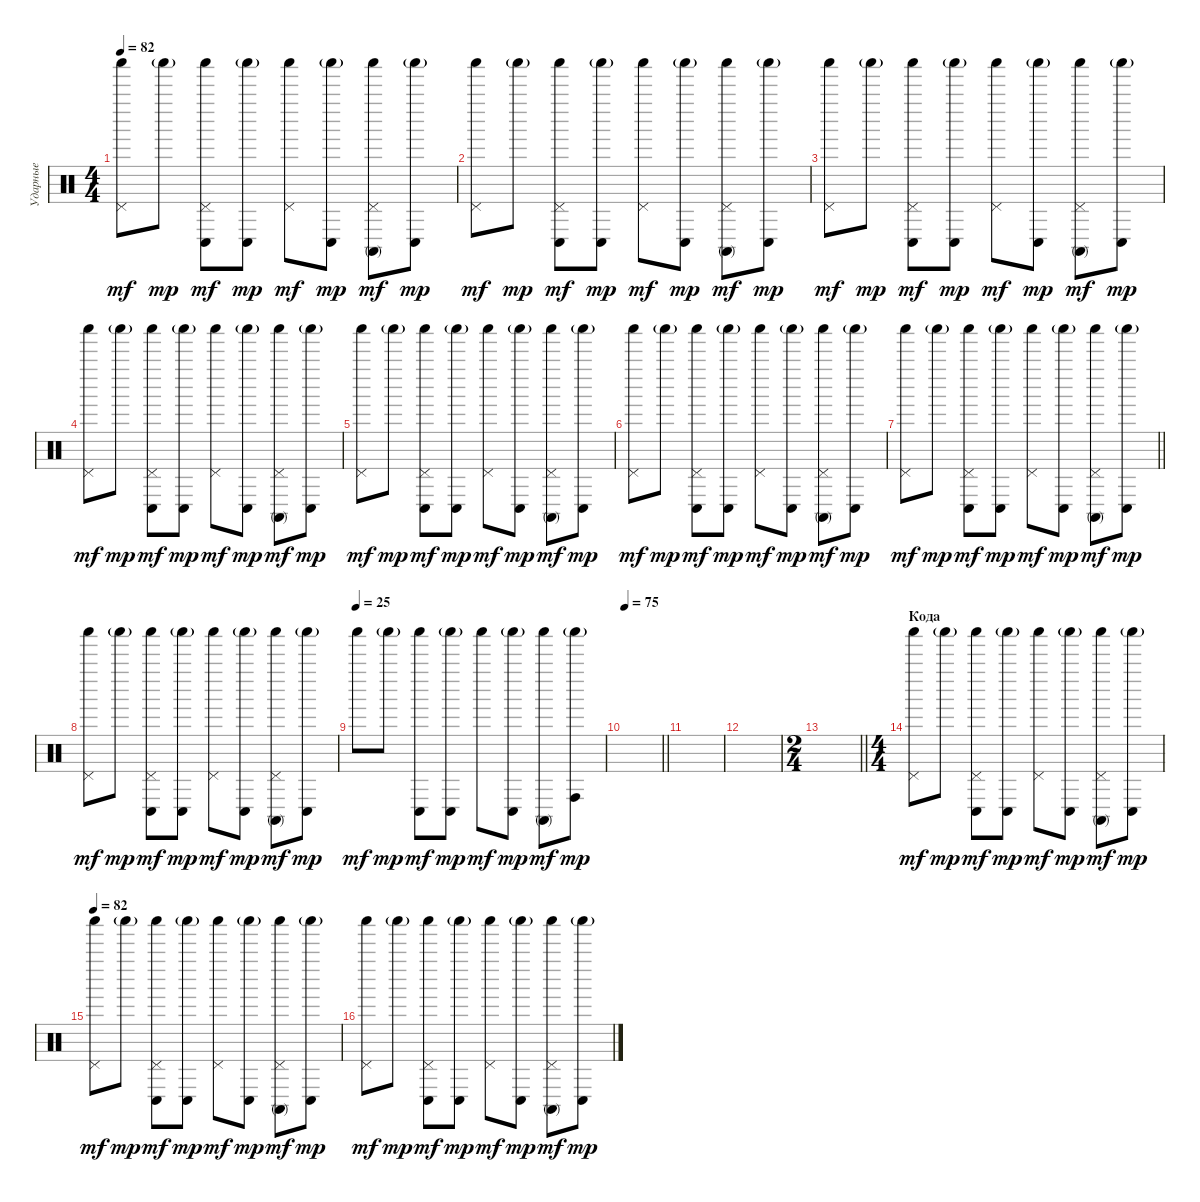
\track ("Ударные" "Ударные") {instrument percussion}
\staff {score}
\articulation defaults
\ts (4 4)
\tempo 82
\clef neutral
\ks aminor
("Shaker (hit)" "Pedal Hi-Hat (hit)").8{dy mf} "Shaker (hit)"{g}.8{dy mp} ("Shaker (hit)" "Conga low (hit)" "Pedal Hi-Hat (hit)").8{dy mf} ("Shaker (hit)"{g} "Conga low (hit)").8{dy mp} ("Shaker (hit)" "Pedal Hi-Hat (hit)").8{dy mf} ("Shaker (hit)"{g} "Conga low (hit)").8{dy mp} ("Shaker (hit)" "Conga high (mute)" "Pedal Hi-Hat (hit)").8{dy mf} ("Shaker (hit)"{g} "Conga low (hit)").8{dy mp} |
("Shaker (hit)" "Pedal Hi-Hat (hit)").8{dy mf} "Shaker (hit)"{g}.8{dy mp} ("Shaker (hit)" "Conga low (hit)" "Pedal Hi-Hat (hit)").8{dy mf} ("Shaker (hit)"{g} "Conga low (hit)").8{dy mp} ("Shaker (hit)" "Pedal Hi-Hat (hit)").8{dy mf} ("Shaker (hit)"{g} "Conga low (hit)").8{dy mp} ("Shaker (hit)" "Conga high (mute)" "Pedal Hi-Hat (hit)").8{dy mf} ("Shaker (hit)"{g} "Conga low (hit)").8{dy mp} |
("Shaker (hit)" "Pedal Hi-Hat (hit)").8{dy mf} "Shaker (hit)"{g}.8{dy mp} ("Shaker (hit)" "Conga low (hit)" "Pedal Hi-Hat (hit)").8{dy mf} ("Shaker (hit)"{g} "Conga low (hit)").8{dy mp} ("Shaker (hit)" "Pedal Hi-Hat (hit)").8{dy mf} ("Shaker (hit)"{g} "Conga low (hit)").8{dy mp} ("Shaker (hit)" "Conga high (mute)" "Pedal Hi-Hat (hit)").8{dy mf} ("Shaker (hit)"{g} "Conga low (hit)").8{dy mp} |
("Shaker (hit)" "Pedal Hi-Hat (hit)").8{dy mf} "Shaker (hit)"{g}.8{dy mp} ("Shaker (hit)" "Conga low (hit)" "Pedal Hi-Hat (hit)").8{dy mf} ("Shaker (hit)"{g} "Conga low (hit)").8{dy mp} ("Shaker (hit)" "Pedal Hi-Hat (hit)").8{dy mf} ("Shaker (hit)"{g} "Conga low (hit)").8{dy mp} ("Shaker (hit)" "Conga high (mute)" "Pedal Hi-Hat (hit)").8{dy mf} ("Shaker (hit)"{g} "Conga low (hit)").8{dy mp} |
("Shaker (hit)" "Pedal Hi-Hat (hit)").8{dy mf} "Shaker (hit)"{g}.8{dy mp} ("Shaker (hit)" "Conga low (hit)" "Pedal Hi-Hat (hit)").8{dy mf} ("Shaker (hit)"{g} "Conga low (hit)").8{dy mp} ("Shaker (hit)" "Pedal Hi-Hat (hit)").8{dy mf} ("Shaker (hit)"{g} "Conga low (hit)").8{dy mp} ("Shaker (hit)" "Conga high (mute)" "Pedal Hi-Hat (hit)").8{dy mf} ("Shaker (hit)"{g} "Conga low (hit)").8{dy mp} |
("Shaker (hit)" "Pedal Hi-Hat (hit)").8{dy mf} "Shaker (hit)"{g}.8{dy mp} ("Shaker (hit)" "Conga low (hit)" "Pedal Hi-Hat (hit)").8{dy mf} ("Shaker (hit)"{g} "Conga low (hit)").8{dy mp} ("Shaker (hit)" "Pedal Hi-Hat (hit)").8{dy mf} ("Shaker (hit)"{g} "Conga low (hit)").8{dy mp} ("Shaker (hit)" "Conga high (mute)" "Pedal Hi-Hat (hit)").8{dy mf} ("Shaker (hit)"{g} "Conga low (hit)").8{dy mp} |
\barLineRight lightlight
("Shaker (hit)" "Pedal Hi-Hat (hit)").8{dy mf} "Shaker (hit)"{g}.8{dy mp} ("Shaker (hit)" "Conga low (hit)" "Pedal Hi-Hat (hit)").8{dy mf} ("Shaker (hit)"{g} "Conga low (hit)").8{dy mp} ("Shaker (hit)" "Pedal Hi-Hat (hit)").8{dy mf} ("Shaker (hit)"{g} "Conga low (hit)").8{dy mp} ("Shaker (hit)" "Conga high (mute)" "Pedal Hi-Hat (hit)").8{dy mf} ("Shaker (hit)"{g} "Conga low (hit)").8{dy mp} |
\section ("" "")
("Shaker (hit)" "Pedal Hi-Hat (hit)").8{dy mf} "Shaker (hit)"{g}.8{dy mp} ("Shaker (hit)" "Conga low (hit)" "Pedal Hi-Hat (hit)").8{dy mf} ("Shaker (hit)"{g} "Conga low (hit)").8{dy mp} ("Shaker (hit)" "Pedal Hi-Hat (hit)").8{dy mf} ("Shaker (hit)"{g} "Conga low (hit)").8{dy mp} ("Shaker (hit)" "Conga high (mute)" "Pedal Hi-Hat (hit)").8{dy mf} ("Shaker (hit)"{g} "Conga low (hit)").8{dy mp} |
\tempo (25)
"Shaker (hit)".8{dy mf} "Shaker (hit)"{g}.8{dy mp} ("Shaker (hit)" "Conga low (hit)").8{dy mf} ("Shaker (hit)"{g} "Conga low (hit)").8{dy mp} "Shaker (hit)".8{dy mf} ("Shaker (hit)"{g} "Conga low (hit)").8{dy mp} ("Shaker (hit)" "Conga high (mute)").8{dy mf} ("Shaker (hit)"{g} "Conga high (hit)").8{dy mp} |
\tempo 75
\barLineRight lightlight
|
|
|
\ts (2 4)
\barLineRight lightlight
|
\ts (4 4)
\section ("" "Кода")
("Shaker (hit)" "Pedal Hi-Hat (hit)").8{dy mf} "Shaker (hit)"{g}.8{dy mp} ("Shaker (hit)" "Conga low (hit)" "Pedal Hi-Hat (hit)").8{dy mf} ("Shaker (hit)"{g} "Conga low (hit)").8{dy mp} ("Shaker (hit)" "Pedal Hi-Hat (hit)").8{dy mf} ("Shaker (hit)"{g} "Conga low (hit)").8{dy mp} ("Shaker (hit)" "Conga high (mute)" "Pedal Hi-Hat (hit)").8{dy mf} ("Shaker (hit)"{g} "Conga low (hit)").8{dy mp} |
\tempo 82
("Shaker (hit)" "Pedal Hi-Hat (hit)").8{dy mf} "Shaker (hit)"{g}.8{dy mp} ("Shaker (hit)" "Conga low (hit)" "Pedal Hi-Hat (hit)").8{dy mf} ("Shaker (hit)"{g} "Conga low (hit)").8{dy mp} ("Shaker (hit)" "Pedal Hi-Hat (hit)").8{dy mf} ("Shaker (hit)"{g} "Conga low (hit)").8{dy mp} ("Shaker (hit)" "Conga high (mute)" "Pedal Hi-Hat (hit)").8{dy mf} ("Shaker (hit)"{g} "Conga low (hit)").8{dy mp} |
("Shaker (hit)" "Pedal Hi-Hat (hit)").8{dy mf} "Shaker (hit)"{g}.8{dy mp} ("Shaker (hit)" "Conga low (hit)" "Pedal Hi-Hat (hit)").8{dy mf} ("Shaker (hit)"{g} "Conga low (hit)").8{dy mp} ("Shaker (hit)" "Pedal Hi-Hat (hit)").8{dy mf} ("Shaker (hit)"{g} "Conga low (hit)").8{dy mp} ("Shaker (hit)" "Conga high (mute)" "Pedal Hi-Hat (hit)").8{dy mf} ("Shaker (hit)"{g} "Conga low (hit)").8{dy mp}
